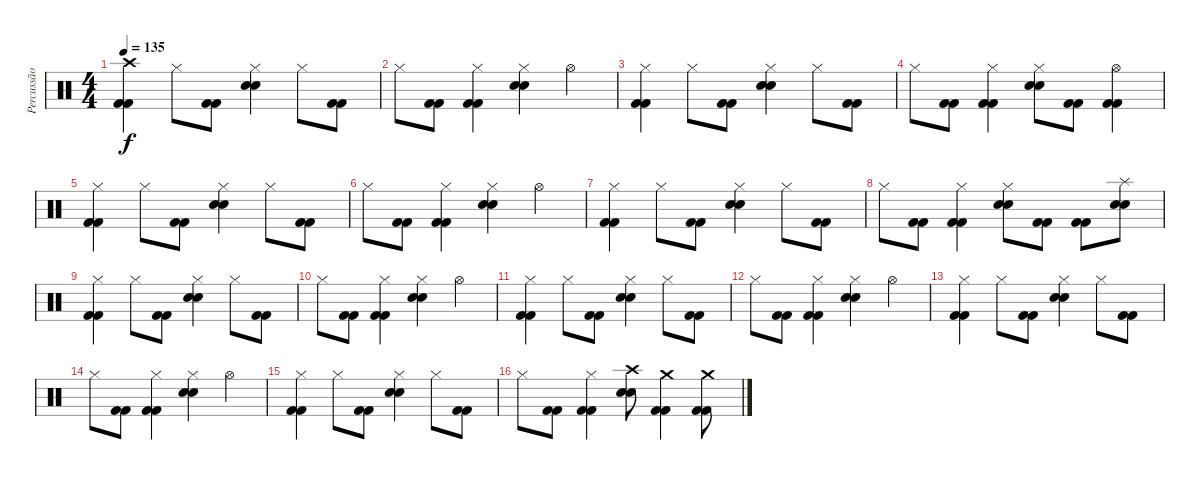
\track ("Percussão" "Percussão") {instrument percussion}
\staff {score}
\articulation defaults
\ts (4 4)
\tempo 135
\clef neutral
\ks c
("Crash high (hit)" "Kick (hit) 2" "Kick (hit) 2").4{dy f} "Hi-Hat (closed)".8 ("Kick (hit) 2" "Kick (hit) 2").8 ("Hi-Hat (closed)" "Electric Snare (hit)" "Electric Snare (hit)").4 "Hi-Hat (closed)".8 ("Kick (hit) 2" "Kick (hit) 2").8 |
"Hi-Hat (closed)".8 ("Kick (hit) 2" "Kick (hit) 2").8 ("Hi-Hat (closed)" "Kick (hit) 2" "Kick (hit) 2").4 ("Hi-Hat (closed)" "Electric Snare (hit)" "Electric Snare (hit)").4 "Hi-Hat (open)".4 |
("Hi-Hat (closed)" "Kick (hit) 2" "Kick (hit) 2").4 "Hi-Hat (closed)".8 ("Kick (hit) 2" "Kick (hit) 2").8 ("Hi-Hat (closed)" "Electric Snare (hit)" "Electric Snare (hit)").4 "Hi-Hat (closed)".8 ("Kick (hit) 2" "Kick (hit) 2").8 |
"Hi-Hat (closed)".8 ("Kick (hit) 2" "Kick (hit) 2").8 ("Hi-Hat (closed)" "Kick (hit) 2" "Kick (hit) 2").4 ("Hi-Hat (closed)" "Electric Snare (hit)" "Electric Snare (hit)").8 ("Kick (hit) 2" "Kick (hit) 2").8 ("Hi-Hat (open)" "Kick (hit) 2" "Kick (hit) 2").4 |
("Hi-Hat (closed)" "Kick (hit) 2" "Kick (hit) 2").4 "Hi-Hat (closed)".8 ("Kick (hit) 2" "Kick (hit) 2").8 ("Hi-Hat (closed)" "Electric Snare (hit)" "Electric Snare (hit)").4 "Hi-Hat (closed)".8 ("Kick (hit) 2" "Kick (hit) 2").8 |
"Hi-Hat (closed)".8 ("Kick (hit) 2" "Kick (hit) 2").8 ("Hi-Hat (closed)" "Kick (hit) 2" "Kick (hit) 2").4 ("Hi-Hat (closed)" "Electric Snare (hit)" "Electric Snare (hit)").4 "Hi-Hat (open)".4 |
("Hi-Hat (closed)" "Kick (hit) 2" "Kick (hit) 2").4 "Hi-Hat (closed)".8 ("Kick (hit) 2" "Kick (hit) 2").8 ("Hi-Hat (closed)" "Electric Snare (hit)" "Electric Snare (hit)").4 "Hi-Hat (closed)".8 ("Kick (hit) 2" "Kick (hit) 2").8 |
"Hi-Hat (closed)".8 ("Kick (hit) 2" "Kick (hit) 2").8 ("Hi-Hat (closed)" "Kick (hit) 2" "Kick (hit) 2").4 ("Hi-Hat (closed)" "Electric Snare (hit)" "Electric Snare (hit)").8 ("Kick (hit) 2" "Kick (hit) 2").8 ("Kick (hit) 2" "Kick (hit) 2").8 ("Splash (hit)" "Electric Snare (hit)" "Electric Snare (hit)").8 |
("Hi-Hat (closed)" "Kick (hit) 2" "Kick (hit) 2").4 "Hi-Hat (closed)".8 ("Kick (hit) 2" "Kick (hit) 2").8 ("Hi-Hat (closed)" "Electric Snare (hit)" "Electric Snare (hit)").4 "Hi-Hat (closed)".8 ("Kick (hit) 2" "Kick (hit) 2").8 |
"Hi-Hat (closed)".8 ("Kick (hit) 2" "Kick (hit) 2").8 ("Hi-Hat (closed)" "Kick (hit) 2" "Kick (hit) 2").4 ("Hi-Hat (closed)" "Electric Snare (hit)" "Electric Snare (hit)").4 "Hi-Hat (open)".4 |
("Hi-Hat (closed)" "Kick (hit) 2" "Kick (hit) 2").4 "Hi-Hat (closed)".8 ("Kick (hit) 2" "Kick (hit) 2").8 ("Hi-Hat (closed)" "Electric Snare (hit)" "Electric Snare (hit)").4 "Hi-Hat (closed)".8 ("Kick (hit) 2" "Kick (hit) 2").8 |
"Hi-Hat (closed)".8 ("Kick (hit) 2" "Kick (hit) 2").8 ("Hi-Hat (closed)" "Kick (hit) 2" "Kick (hit) 2").4 ("Hi-Hat (closed)" "Electric Snare (hit)" "Electric Snare (hit)").4 "Hi-Hat (open)".4 |
("Hi-Hat (closed)" "Kick (hit) 2" "Kick (hit) 2").4 "Hi-Hat (closed)".8 ("Kick (hit) 2" "Kick (hit) 2").8 ("Hi-Hat (closed)" "Electric Snare (hit)" "Electric Snare (hit)").4 "Hi-Hat (closed)".8 ("Kick (hit) 2" "Kick (hit) 2").8 |
"Hi-Hat (closed)".8 ("Kick (hit) 2" "Kick (hit) 2").8 ("Hi-Hat (closed)" "Kick (hit) 2" "Kick (hit) 2").4 ("Hi-Hat (closed)" "Electric Snare (hit)" "Electric Snare (hit)").4 "Hi-Hat (open)".4 |
("Hi-Hat (closed)" "Kick (hit) 2" "Kick (hit) 2").4 "Hi-Hat (closed)".8 ("Kick (hit) 2" "Kick (hit) 2").8 ("Hi-Hat (closed)" "Electric Snare (hit)" "Electric Snare (hit)").4 "Hi-Hat (closed)".8 ("Kick (hit) 2" "Kick (hit) 2").8 |
"Hi-Hat (closed)".8 ("Kick (hit) 2" "Kick (hit) 2").8 ("Hi-Hat (closed)" "Kick (hit) 2" "Kick (hit) 2").4 ("Crash high (hit)" "Electric Snare (hit)" "Electric Snare (hit)").8 ("Crash medium (hit)" "Kick (hit) 2" "Kick (hit) 2").4 ("Crash medium (hit)" "Kick (hit) 2" "Kick (hit) 2").8
